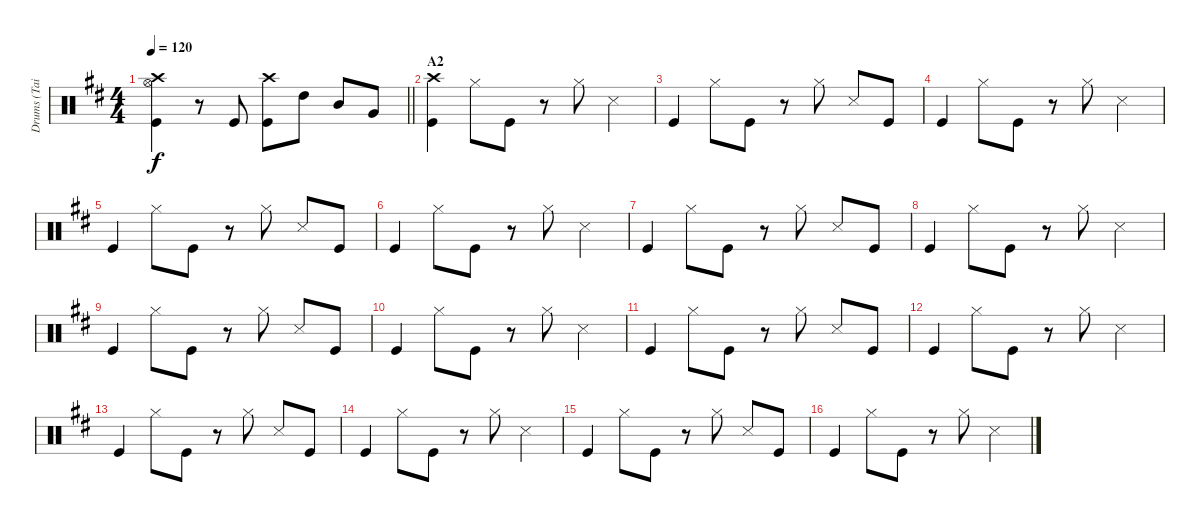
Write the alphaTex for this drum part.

\track ("Drums (Tainaka Ritsu)" "Drums (Tai") {instrument percussion}
\staff {score}
\articulation defaults
\ts (4 4)
\tempo 120
\clef neutral
\barLineRight lightlight
\ks d
("Crash high (hit)" "Hi-Hat (open)" "Kick (hit)").4{dy f} r.8 "Kick (hit)".8 ("Crash high (hit)" "Kick (hit)").8 "High Tom (hit)".8 "Mid Tom (hit)".8 "Very Low Tom (hit)".8 |
\section ("" "A2")
("Crash high (hit)" "Kick (hit)").4 "Hi-Hat (closed)".8 "Kick (hit)".8 r.8 "Hi-Hat (closed)".8 "Snare (side stick) 3".4 |
"Kick (hit)".4 "Hi-Hat (closed)".8 "Kick (hit)".8 r.8 "Hi-Hat (closed)".8 "Snare (side stick) 3".8 "Kick (hit)".8 |
"Kick (hit)".4 "Hi-Hat (closed)".8 "Kick (hit)".8 r.8 "Hi-Hat (closed)".8 "Snare (side stick) 3".4 |
"Kick (hit)".4 "Hi-Hat (closed)".8 "Kick (hit)".8 r.8 "Hi-Hat (closed)".8 "Snare (side stick) 3".8 "Kick (hit)".8 |
"Kick (hit)".4 "Hi-Hat (closed)".8 "Kick (hit)".8 r.8 "Hi-Hat (closed)".8 "Snare (side stick) 3".4 |
"Kick (hit)".4 "Hi-Hat (closed)".8 "Kick (hit)".8 r.8 "Hi-Hat (closed)".8 "Snare (side stick) 3".8 "Kick (hit)".8 |
"Kick (hit)".4 "Hi-Hat (closed)".8 "Kick (hit)".8 r.8 "Hi-Hat (closed)".8 "Snare (side stick) 3".4 |
"Kick (hit)".4 "Hi-Hat (closed)".8 "Kick (hit)".8 r.8 "Hi-Hat (closed)".8 "Snare (side stick) 3".8 "Kick (hit)".8 |
"Kick (hit)".4 "Hi-Hat (closed)".8 "Kick (hit)".8 r.8 "Hi-Hat (closed)".8 "Snare (side stick) 3".4 |
"Kick (hit)".4 "Hi-Hat (closed)".8 "Kick (hit)".8 r.8 "Hi-Hat (closed)".8 "Snare (side stick) 3".8 "Kick (hit)".8 |
"Kick (hit)".4 "Hi-Hat (closed)".8 "Kick (hit)".8 r.8 "Hi-Hat (closed)".8 "Snare (side stick) 3".4 |
"Kick (hit)".4 "Hi-Hat (closed)".8 "Kick (hit)".8 r.8 "Hi-Hat (closed)".8 "Snare (side stick) 3".8 "Kick (hit)".8 |
"Kick (hit)".4 "Hi-Hat (closed)".8 "Kick (hit)".8 r.8 "Hi-Hat (closed)".8 "Snare (side stick) 3".4 |
"Kick (hit)".4 "Hi-Hat (closed)".8 "Kick (hit)".8 r.8 "Hi-Hat (closed)".8 "Snare (side stick) 3".8 "Kick (hit)".8 |
"Kick (hit)".4 "Hi-Hat (closed)".8 "Kick (hit)".8 r.8 "Hi-Hat (closed)".8 "Snare (side stick) 3".4
